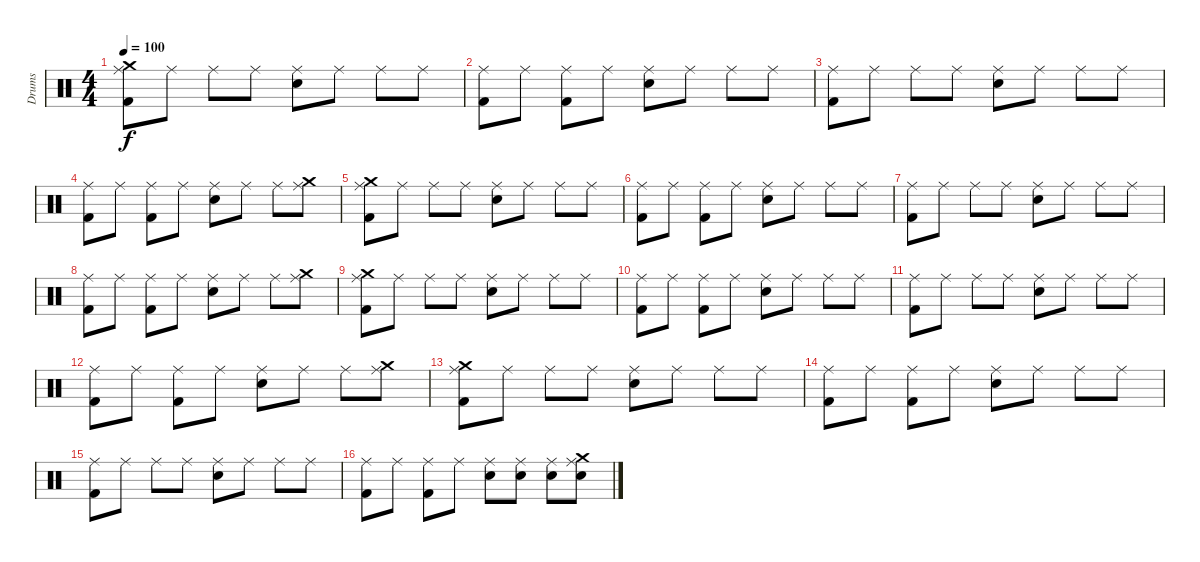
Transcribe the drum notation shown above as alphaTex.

\track ("Drums" "Drums") {instrument percussion}
\staff {score}
\articulation defaults
\ts (4 4)
\tempo 100
\clef neutral
\ks c
("Ride (middle)" "Crash medium (hit)" "Kick (hit) 2").8{dy f} "Ride (middle)".8 "Ride (middle)".8 "Ride (middle)".8 ("Ride (middle)" "Electric Snare (hit)").8 "Ride (middle)".8 "Ride (middle)".8 "Ride (middle)".8 |
("Ride (middle)" "Kick (hit) 2").8 "Ride (middle)".8 ("Ride (middle)" "Kick (hit) 2").8 "Ride (middle)".8 ("Ride (middle)" "Electric Snare (hit)").8 "Ride (middle)".8 "Ride (middle)".8 "Ride (middle)".8 |
("Ride (middle)" "Kick (hit) 2").8 "Ride (middle)".8 "Ride (middle)".8 "Ride (middle)".8 ("Ride (middle)" "Electric Snare (hit)").8 "Ride (middle)".8 "Ride (middle)".8 "Ride (middle)".8 |
("Ride (middle)" "Kick (hit) 2").8 "Ride (middle)".8 ("Ride (middle)" "Kick (hit) 2").8 "Ride (middle)".8 ("Ride (middle)" "Electric Snare (hit)").8 "Ride (middle)".8 "Ride (middle)".8 ("Ride (middle)" "Crash medium (hit)").8 |
("Ride (middle)" "Crash medium (hit)" "Kick (hit) 2").8 "Ride (middle)".8 "Ride (middle)".8 "Ride (middle)".8 ("Ride (middle)" "Electric Snare (hit)").8 "Ride (middle)".8 "Ride (middle)".8 "Ride (middle)".8 |
("Ride (middle)" "Kick (hit) 2").8 "Ride (middle)".8 ("Ride (middle)" "Kick (hit) 2").8 "Ride (middle)".8 ("Ride (middle)" "Electric Snare (hit)").8 "Ride (middle)".8 "Ride (middle)".8 "Ride (middle)".8 |
("Ride (middle)" "Kick (hit) 2").8 "Ride (middle)".8 "Ride (middle)".8 "Ride (middle)".8 ("Ride (middle)" "Electric Snare (hit)").8 "Ride (middle)".8 "Ride (middle)".8 "Ride (middle)".8 |
("Ride (middle)" "Kick (hit) 2").8 "Ride (middle)".8 ("Ride (middle)" "Kick (hit) 2").8 "Ride (middle)".8 ("Ride (middle)" "Electric Snare (hit)").8 "Ride (middle)".8 "Ride (middle)".8 ("Ride (middle)" "Crash medium (hit)").8 |
("Ride (middle)" "Crash medium (hit)" "Kick (hit) 2").8 "Ride (middle)".8 "Ride (middle)".8 "Ride (middle)".8 ("Ride (middle)" "Electric Snare (hit)").8 "Ride (middle)".8 "Ride (middle)".8 "Ride (middle)".8 |
("Ride (middle)" "Kick (hit) 2").8 "Ride (middle)".8 ("Ride (middle)" "Kick (hit) 2").8 "Ride (middle)".8 ("Ride (middle)" "Electric Snare (hit)").8 "Ride (middle)".8 "Ride (middle)".8 "Ride (middle)".8 |
("Ride (middle)" "Kick (hit) 2").8 "Ride (middle)".8 "Ride (middle)".8 "Ride (middle)".8 ("Ride (middle)" "Electric Snare (hit)").8 "Ride (middle)".8 "Ride (middle)".8 "Ride (middle)".8 |
("Ride (middle)" "Kick (hit) 2").8 "Ride (middle)".8 ("Ride (middle)" "Kick (hit) 2").8 "Ride (middle)".8 ("Ride (middle)" "Electric Snare (hit)").8 "Ride (middle)".8 "Ride (middle)".8 ("Ride (middle)" "Crash medium (hit)").8 |
("Ride (middle)" "Crash medium (hit)" "Kick (hit) 2").8 "Ride (middle)".8 "Ride (middle)".8 "Ride (middle)".8 ("Ride (middle)" "Electric Snare (hit)").8 "Ride (middle)".8 "Ride (middle)".8 "Ride (middle)".8 |
("Ride (middle)" "Kick (hit) 2").8 "Ride (middle)".8 ("Ride (middle)" "Kick (hit) 2").8 "Ride (middle)".8 ("Ride (middle)" "Electric Snare (hit)").8 "Ride (middle)".8 "Ride (middle)".8 "Ride (middle)".8 |
("Ride (middle)" "Kick (hit) 2").8 "Ride (middle)".8 "Ride (middle)".8 "Ride (middle)".8 ("Ride (middle)" "Electric Snare (hit)").8 "Ride (middle)".8 "Ride (middle)".8 "Ride (middle)".8 |
("Ride (middle)" "Kick (hit) 2").8 "Ride (middle)".8 ("Ride (middle)" "Kick (hit) 2").8 "Ride (middle)".8 ("Ride (middle)" "Electric Snare (hit)").8 ("Ride (middle)" "Electric Snare (hit)").8 ("Ride (middle)" "Electric Snare (hit)").8 ("Ride (middle)" "Crash medium (hit)" "Electric Snare (hit)").8
